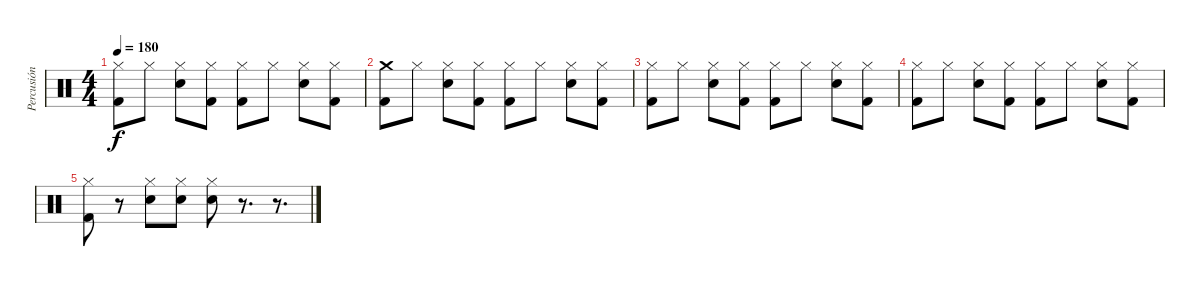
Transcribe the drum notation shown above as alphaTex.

\track ("Percusión" "Percusión") {instrument percussion}
\staff {score}
\articulation defaults
\ts (4 4)
\tempo 180
\clef neutral
\ks c
("Hi-Hat (closed)" "Kick (hit) 2").8{dy f} "Hi-Hat (closed)".8 ("Hi-Hat (closed)" "Electric Snare (hit)").8 ("Hi-Hat (closed)" "Kick (hit) 2").8 ("Hi-Hat (closed)" "Kick (hit) 2").8 "Hi-Hat (closed)".8 ("Hi-Hat (closed)" "Electric Snare (hit)").8 ("Hi-Hat (closed)" "Kick (hit) 2").8 |
("Crash medium (hit)" "Kick (hit) 2").8 "Hi-Hat (closed)".8 ("Hi-Hat (closed)" "Electric Snare (hit)").8 ("Hi-Hat (closed)" "Kick (hit) 2").8 ("Hi-Hat (closed)" "Kick (hit) 2").8 "Hi-Hat (closed)".8 ("Hi-Hat (closed)" "Electric Snare (hit)").8 ("Hi-Hat (closed)" "Kick (hit) 2").8 |
("Hi-Hat (closed)" "Kick (hit) 2").8 "Hi-Hat (closed)".8 ("Hi-Hat (closed)" "Electric Snare (hit)").8 ("Hi-Hat (closed)" "Kick (hit) 2").8 ("Hi-Hat (closed)" "Kick (hit) 2").8 "Hi-Hat (closed)".8 ("Hi-Hat (closed)" "Electric Snare (hit)").8 ("Hi-Hat (closed)" "Kick (hit) 2").8 |
("Hi-Hat (closed)" "Kick (hit) 2").8 "Hi-Hat (closed)".8 ("Hi-Hat (closed)" "Electric Snare (hit)").8 ("Hi-Hat (closed)" "Kick (hit) 2").8 ("Hi-Hat (closed)" "Kick (hit) 2").8 "Hi-Hat (closed)".8 ("Hi-Hat (closed)" "Electric Snare (hit)").8 ("Hi-Hat (closed)" "Kick (hit) 2").8 |
("Hi-Hat (closed)" "Kick (hit) 2").8 r.8 ("Hi-Hat (closed)" "Electric Snare (hit)").8 ("Hi-Hat (closed)" "Electric Snare (hit)").8 ("Hi-Hat (closed)" "Electric Snare (hit)").8 r.8{d} r.8{d}
